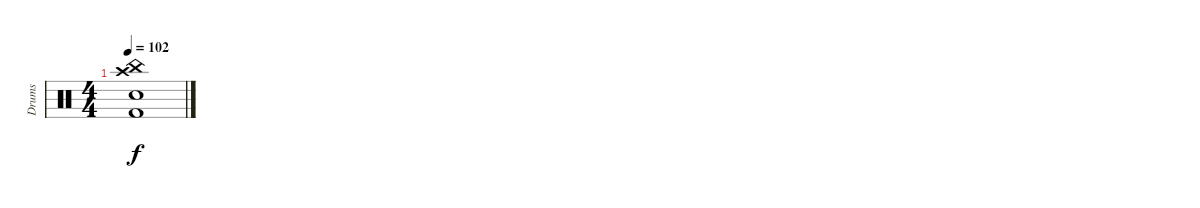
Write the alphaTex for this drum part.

\track ("Drums" "Drums") {instrument percussion}
\staff {score}
\articulation defaults
\ts (4 4)
\tempo 102
\clef neutral
\ks c
("Crash high (hit)" "China (hit)" "Snare (hit) 2" "Kick (hit) 2").1{dy f}
